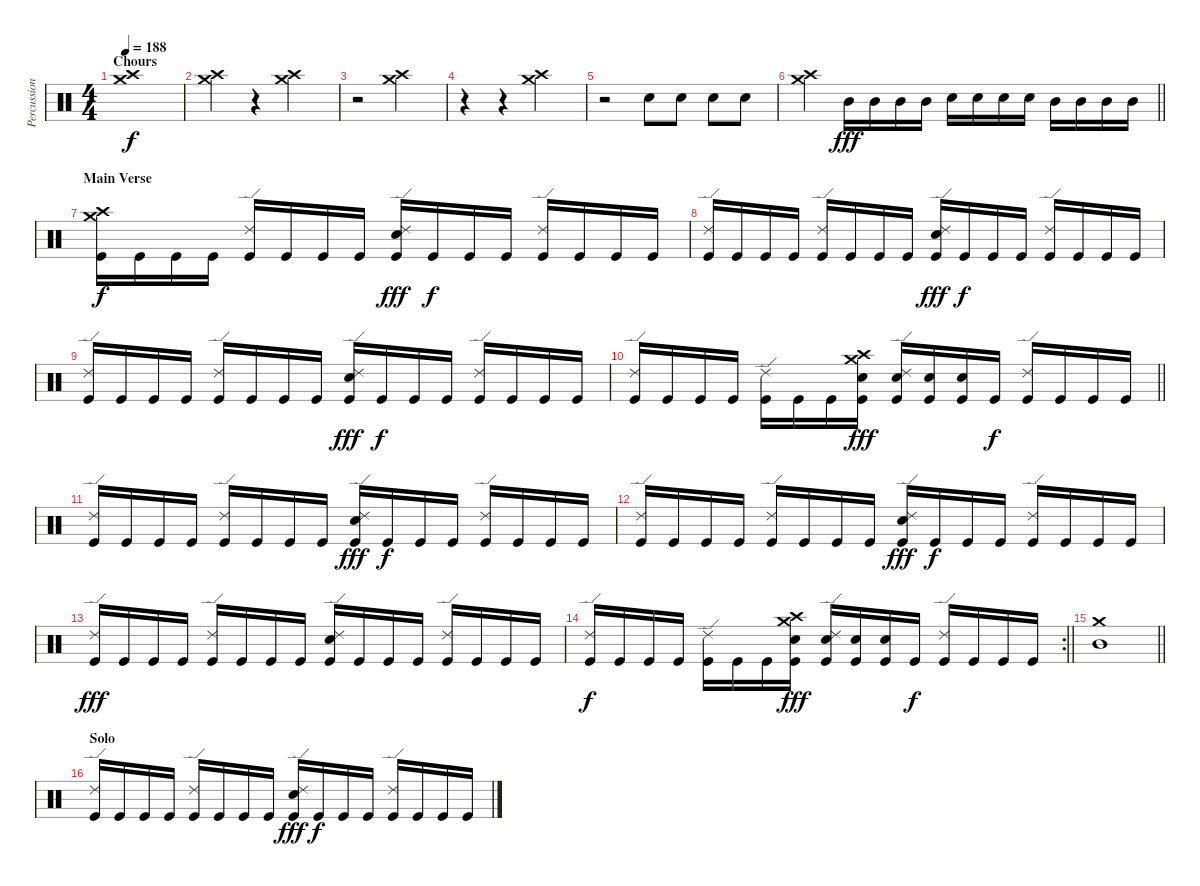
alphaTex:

\track ("Percussion" "Percussion") {instrument percussion}
\staff {score}
\articulation defaults
\ts (4 4)
\section ("" "Chours")
\tempo 188
\clef neutral
\ks c
("Crash high (hit)" "Crash medium (hit)").1{dy f} |
("Crash high (hit)" "Crash medium (hit)").4 r.4 ("Crash high (hit)" "Crash medium (hit)").2 |
r.2 ("Crash high (hit)" "Crash medium (hit)").2 |
r.4 r.4 ("Crash high (hit)" "Crash medium (hit)").2 |
r.2 "Snare (hit) 2".8 "Snare (hit) 2".8 "Snare (hit) 2".8 "Snare (hit) 2".8 |
\barLineRight lightlight
("Crash high (hit)" "Crash medium (hit)").4 "Mid Tom (hit)".16{dy fff} "Mid Tom (hit)".16 "Mid Tom (hit)".16 "Mid Tom (hit)".16 "Snare (hit) 2".16 "Snare (hit) 2".16 "Snare (hit) 2".16 "Snare (hit) 2".16 "Mid Tom (hit)".16 "Mid Tom (hit)".16 "Mid Tom (hit)".16 "Mid Tom (hit)".16 |
\section ("" "Main Verse")
("Crash high (hit)" "Crash medium (hit)" "Kick (hit)").16{dy f} "Kick (hit)".16 "Kick (hit)".16 "Kick (hit)".16 ("Ride (edge) 2" "Kick (hit)").16 "Kick (hit)".16 "Kick (hit)".16 "Kick (hit)".16 ("Ride (edge) 2" "Snare (hit) 2" "Kick (hit)").16{dy fff} "Kick (hit)".16{dy f} "Kick (hit)".16 "Kick (hit)".16 ("Ride (edge) 2" "Kick (hit)").16 "Kick (hit)".16 "Kick (hit)".16 "Kick (hit)".16 |
("Ride (edge) 2" "Kick (hit)").16 "Kick (hit)".16 "Kick (hit)".16 "Kick (hit)".16 ("Ride (edge) 2" "Kick (hit)").16 "Kick (hit)".16 "Kick (hit)".16 "Kick (hit)".16 ("Ride (edge) 2" "Snare (hit) 2" "Kick (hit)").16{dy fff} "Kick (hit)".16{dy f} "Kick (hit)".16 "Kick (hit)".16 ("Ride (edge) 2" "Kick (hit)").16 "Kick (hit)".16 "Kick (hit)".16 "Kick (hit)".16 |
("Ride (edge) 2" "Kick (hit)").16 "Kick (hit)".16 "Kick (hit)".16 "Kick (hit)".16 ("Ride (edge) 2" "Kick (hit)").16 "Kick (hit)".16 "Kick (hit)".16 "Kick (hit)".16 ("Ride (edge) 2" "Snare (hit) 2" "Kick (hit)").16{dy fff} "Kick (hit)".16{dy f} "Kick (hit)".16 "Kick (hit)".16 ("Ride (edge) 2" "Kick (hit)").16 "Kick (hit)".16 "Kick (hit)".16 "Kick (hit)".16 |
\barLineRight lightlight
("Ride (edge) 2" "Kick (hit)").16 "Kick (hit)".16 "Kick (hit)".16 "Kick (hit)".16 ("Ride (edge) 2" "Kick (hit)").16 "Kick (hit)".16 "Kick (hit)".16 ("Crash medium (hit)" "Crash high (hit)" "Snare (hit) 2" "Kick (hit)").16{dy fff} ("Ride (edge) 2" "Snare (hit) 2" "Kick (hit)").16 ("Snare (hit) 2" "Kick (hit)").16 ("Snare (hit) 2" "Kick (hit)").16 "Kick (hit)".16{dy f} ("Ride (edge) 2" "Kick (hit)").16 "Kick (hit)".16 "Kick (hit)".16 "Kick (hit)".16 |
("Ride (edge) 2" "Kick (hit)").16 "Kick (hit)".16 "Kick (hit)".16 "Kick (hit)".16 ("Ride (edge) 2" "Kick (hit)").16 "Kick (hit)".16 "Kick (hit)".16 "Kick (hit)".16 ("Ride (edge) 2" "Snare (hit) 2" "Kick (hit)").16{dy fff} "Kick (hit)".16{dy f} "Kick (hit)".16 "Kick (hit)".16 ("Ride (edge) 2" "Kick (hit)").16 "Kick (hit)".16 "Kick (hit)".16 "Kick (hit)".16 |
("Ride (edge) 2" "Kick (hit)").16 "Kick (hit)".16 "Kick (hit)".16 "Kick (hit)".16 ("Ride (edge) 2" "Kick (hit)").16 "Kick (hit)".16 "Kick (hit)".16 "Kick (hit)".16 ("Ride (edge) 2" "Snare (hit) 2" "Kick (hit)").16{dy fff} "Kick (hit)".16{dy f} "Kick (hit)".16 "Kick (hit)".16 ("Ride (edge) 2" "Kick (hit)").16 "Kick (hit)".16 "Kick (hit)".16 "Kick (hit)".16 |
("Ride (edge) 2" "Kick (hit)").16{dy fff} "Kick (hit)".16 "Kick (hit)".16 "Kick (hit)".16 ("Ride (edge) 2" "Kick (hit)").16 "Kick (hit)".16 "Kick (hit)".16 "Kick (hit)".16 ("Ride (edge) 2" "Snare (hit) 2" "Kick (hit)").16 "Kick (hit)".16 "Kick (hit)".16 "Kick (hit)".16 ("Ride (edge) 2" "Kick (hit)").16 "Kick (hit)".16 "Kick (hit)".16 "Kick (hit)".16 |
\rc 2
\barLineRight lightlight
("Ride (edge) 2" "Kick (hit)").16{dy f} "Kick (hit)".16 "Kick (hit)".16 "Kick (hit)".16 ("Ride (edge) 2" "Kick (hit)").16 "Kick (hit)".16 "Kick (hit)".16 ("Crash medium (hit)" "Crash high (hit)" "Snare (hit) 2" "Kick (hit)").16{dy fff} ("Ride (edge) 2" "Snare (hit) 2" "Kick (hit)").16 ("Snare (hit) 2" "Kick (hit)").16 ("Snare (hit) 2" "Kick (hit)").16 "Kick (hit)".16{dy f} ("Ride (edge) 2" "Kick (hit)").16 "Kick (hit)".16 "Kick (hit)".16 "Kick (hit)".16 |
\barLineRight lightlight
("Crash medium (hit)" "Mid Tom (hit)").1 |
\section ("" "Solo")
("Ride (edge) 2" "Kick (hit)").16 "Kick (hit)".16 "Kick (hit)".16 "Kick (hit)".16 ("Ride (edge) 2" "Kick (hit)").16 "Kick (hit)".16 "Kick (hit)".16 "Kick (hit)".16 ("Ride (edge) 2" "Snare (hit) 2" "Kick (hit)").16{dy fff} "Kick (hit)".16{dy f} "Kick (hit)".16 "Kick (hit)".16 ("Ride (edge) 2" "Kick (hit)").16 "Kick (hit)".16 "Kick (hit)".16 "Kick (hit)".16
